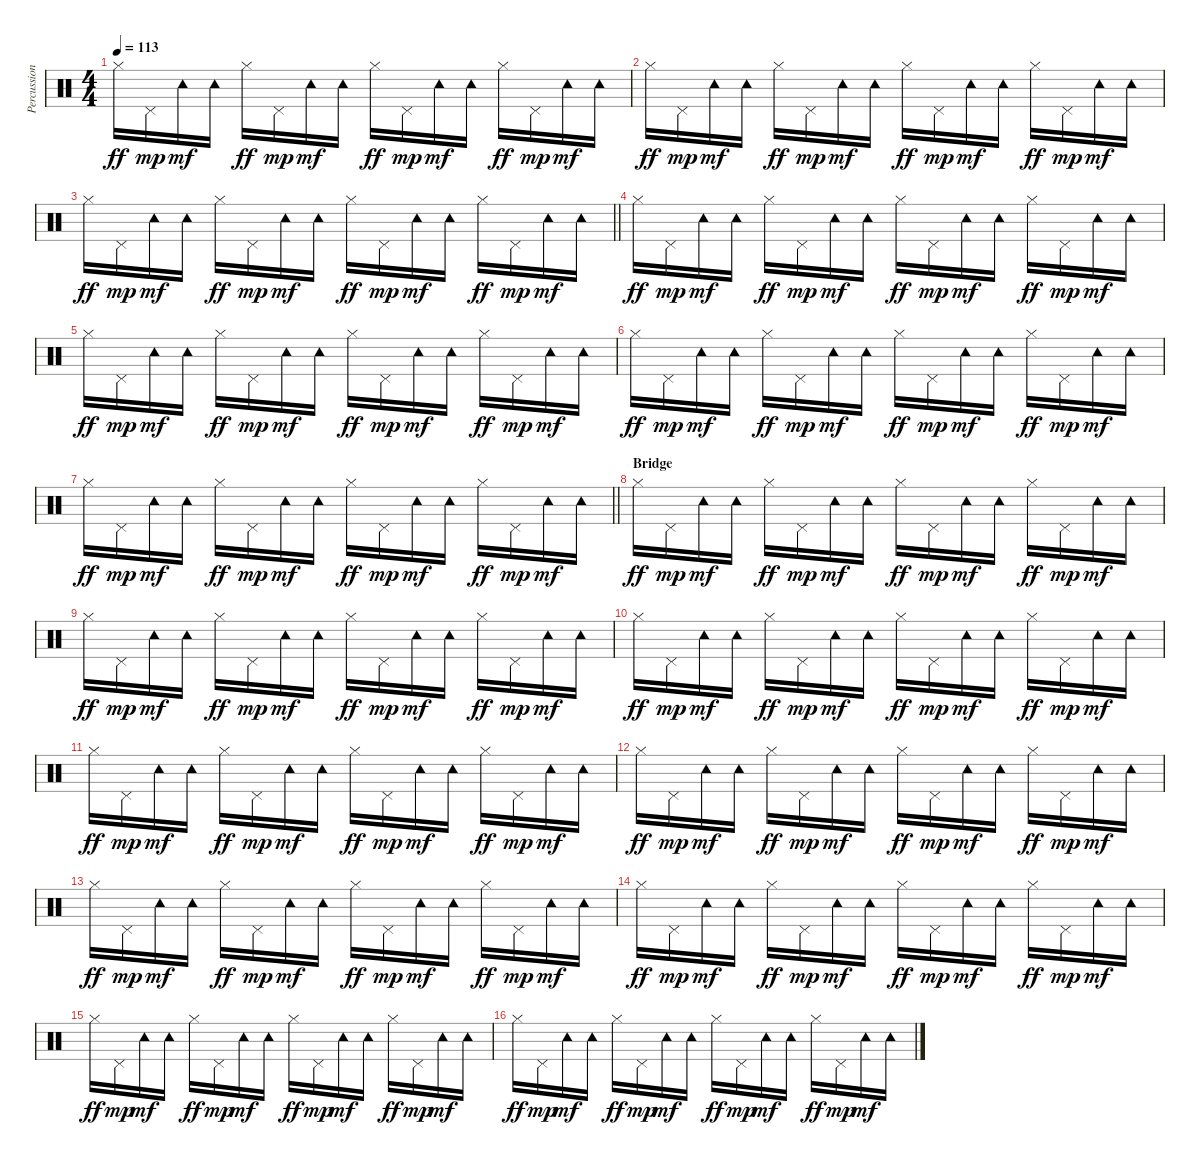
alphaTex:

\track ("Percussion" "Percussion") {instrument percussion}
\staff {score}
\articulation defaults
\ts (4 4)
\tempo 113
\clef neutral
\ks c "Hi-Hat (closed)".16{dy ff} "Pedal Hi-Hat (hit)".16{dy mp} "Tambourine (hit)".16{dy mf} "Tambourine (hit)".16 "Hi-Hat (closed)".16{dy ff} "Pedal Hi-Hat (hit)".16{dy mp} "Tambourine (hit)".16{dy mf} "Tambourine (hit)".16 "Hi-Hat (closed)".16{dy ff} "Pedal Hi-Hat (hit)".16{dy mp} "Tambourine (hit)".16{dy mf} "Tambourine (hit)".16 "Hi-Hat (closed)".16{dy ff} "Pedal Hi-Hat (hit)".16{dy mp} "Tambourine (hit)".16{dy mf} "Tambourine (hit)".16
|
"Hi-Hat (closed)".16{dy ff} "Pedal Hi-Hat (hit)".16{dy mp} "Tambourine (hit)".16{dy mf} "Tambourine (hit)".16 "Hi-Hat (closed)".16{dy ff} "Pedal Hi-Hat (hit)".16{dy mp} "Tambourine (hit)".16{dy mf} "Tambourine (hit)".16 "Hi-Hat (closed)".16{dy ff} "Pedal Hi-Hat (hit)".16{dy mp} "Tambourine (hit)".16{dy mf} "Tambourine (hit)".16 "Hi-Hat (closed)".16{dy ff} "Pedal Hi-Hat (hit)".16{dy mp} "Tambourine (hit)".16{dy mf} "Tambourine (hit)".16 |
\barLineRight lightlight "Hi-Hat (closed)".16{dy ff} "Pedal Hi-Hat (hit)".16{dy mp} "Tambourine (hit)".16{dy mf} "Tambourine (hit)".16 "Hi-Hat (closed)".16{dy ff} "Pedal Hi-Hat (hit)".16{dy mp} "Tambourine (hit)".16{dy mf} "Tambourine (hit)".16 "Hi-Hat (closed)".16{dy ff} "Pedal Hi-Hat (hit)".16{dy mp} "Tambourine (hit)".16{dy mf} "Tambourine (hit)".16 "Hi-Hat (closed)".16{dy ff} "Pedal Hi-Hat (hit)".16{dy mp} "Tambourine (hit)".16{dy mf} "Tambourine (hit)".16
|
"Hi-Hat (closed)".16{dy ff} "Pedal Hi-Hat (hit)".16{dy mp} "Tambourine (hit)".16{dy mf} "Tambourine (hit)".16 "Hi-Hat (closed)".16{dy ff} "Pedal Hi-Hat (hit)".16{dy mp} "Tambourine (hit)".16{dy mf} "Tambourine (hit)".16 "Hi-Hat (closed)".16{dy ff} "Pedal Hi-Hat (hit)".16{dy mp} "Tambourine (hit)".16{dy mf} "Tambourine (hit)".16 "Hi-Hat (closed)".16{dy ff} "Pedal Hi-Hat (hit)".16{dy mp} "Tambourine (hit)".16{dy mf} "Tambourine (hit)".16 |
"Hi-Hat (closed)".16{dy ff} "Pedal Hi-Hat (hit)".16{dy mp} "Tambourine (hit)".16{dy mf} "Tambourine (hit)".16 "Hi-Hat (closed)".16{dy ff} "Pedal Hi-Hat (hit)".16{dy mp} "Tambourine (hit)".16{dy mf} "Tambourine (hit)".16 "Hi-Hat (closed)".16{dy ff} "Pedal Hi-Hat (hit)".16{dy mp} "Tambourine (hit)".16{dy mf} "Tambourine (hit)".16 "Hi-Hat (closed)".16{dy ff} "Pedal Hi-Hat (hit)".16{dy mp} "Tambourine (hit)".16{dy mf} "Tambourine (hit)".16 |
"Hi-Hat (closed)".16{dy ff} "Pedal Hi-Hat (hit)".16{dy mp} "Tambourine (hit)".16{dy mf} "Tambourine (hit)".16 "Hi-Hat (closed)".16{dy ff} "Pedal Hi-Hat (hit)".16{dy mp} "Tambourine (hit)".16{dy mf} "Tambourine (hit)".16 "Hi-Hat (closed)".16{dy ff} "Pedal Hi-Hat (hit)".16{dy mp} "Tambourine (hit)".16{dy mf} "Tambourine (hit)".16 "Hi-Hat (closed)".16{dy ff} "Pedal Hi-Hat (hit)".16{dy mp} "Tambourine (hit)".16{dy mf} "Tambourine (hit)".16 |
\barLineRight lightlight "Hi-Hat (closed)".16{dy ff} "Pedal Hi-Hat (hit)".16{dy mp} "Tambourine (hit)".16{dy mf} "Tambourine (hit)".16 "Hi-Hat (closed)".16{dy ff} "Pedal Hi-Hat (hit)".16{dy mp} "Tambourine (hit)".16{dy mf} "Tambourine (hit)".16 "Hi-Hat (closed)".16{dy ff} "Pedal Hi-Hat (hit)".16{dy mp} "Tambourine (hit)".16{dy mf} "Tambourine (hit)".16 "Hi-Hat (closed)".16{dy ff} "Pedal Hi-Hat (hit)".16{dy mp} "Tambourine (hit)".16{dy mf} "Tambourine (hit)".16
|
\section ("" "Bridge")
"Hi-Hat (closed)".16{dy ff} "Pedal Hi-Hat (hit)".16{dy mp} "Tambourine (hit)".16{dy mf} "Tambourine (hit)".16 "Hi-Hat (closed)".16{dy ff} "Pedal Hi-Hat (hit)".16{dy mp} "Tambourine (hit)".16{dy mf} "Tambourine (hit)".16 "Hi-Hat (closed)".16{dy ff} "Pedal Hi-Hat (hit)".16{dy mp} "Tambourine (hit)".16{dy mf} "Tambourine (hit)".16 "Hi-Hat (closed)".16{dy ff} "Pedal Hi-Hat (hit)".16{dy mp} "Tambourine (hit)".16{dy mf} "Tambourine (hit)".16 |
"Hi-Hat (closed)".16{dy ff} "Pedal Hi-Hat (hit)".16{dy mp} "Tambourine (hit)".16{dy mf} "Tambourine (hit)".16 "Hi-Hat (closed)".16{dy ff} "Pedal Hi-Hat (hit)".16{dy mp} "Tambourine (hit)".16{dy mf} "Tambourine (hit)".16 "Hi-Hat (closed)".16{dy ff} "Pedal Hi-Hat (hit)".16{dy mp} "Tambourine (hit)".16{dy mf} "Tambourine (hit)".16 "Hi-Hat (closed)".16{dy ff} "Pedal Hi-Hat (hit)".16{dy mp} "Tambourine (hit)".16{dy mf} "Tambourine (hit)".16 |
"Hi-Hat (closed)".16{dy ff} "Pedal Hi-Hat (hit)".16{dy mp} "Tambourine (hit)".16{dy mf} "Tambourine (hit)".16 "Hi-Hat (closed)".16{dy ff} "Pedal Hi-Hat (hit)".16{dy mp} "Tambourine (hit)".16{dy mf} "Tambourine (hit)".16 "Hi-Hat (closed)".16{dy ff} "Pedal Hi-Hat (hit)".16{dy mp} "Tambourine (hit)".16{dy mf} "Tambourine (hit)".16 "Hi-Hat (closed)".16{dy ff} "Pedal Hi-Hat (hit)".16{dy mp} "Tambourine (hit)".16{dy mf} "Tambourine (hit)".16 |
"Hi-Hat (closed)".16{dy ff} "Pedal Hi-Hat (hit)".16{dy mp} "Tambourine (hit)".16{dy mf} "Tambourine (hit)".16 "Hi-Hat (closed)".16{dy ff} "Pedal Hi-Hat (hit)".16{dy mp} "Tambourine (hit)".16{dy mf} "Tambourine (hit)".16 "Hi-Hat (closed)".16{dy ff} "Pedal Hi-Hat (hit)".16{dy mp} "Tambourine (hit)".16{dy mf} "Tambourine (hit)".16 "Hi-Hat (closed)".16{dy ff} "Pedal Hi-Hat (hit)".16{dy mp} "Tambourine (hit)".16{dy mf} "Tambourine (hit)".16 |
"Hi-Hat (closed)".16{dy ff} "Pedal Hi-Hat (hit)".16{dy mp} "Tambourine (hit)".16{dy mf} "Tambourine (hit)".16 "Hi-Hat (closed)".16{dy ff} "Pedal Hi-Hat (hit)".16{dy mp} "Tambourine (hit)".16{dy mf} "Tambourine (hit)".16 "Hi-Hat (closed)".16{dy ff} "Pedal Hi-Hat (hit)".16{dy mp} "Tambourine (hit)".16{dy mf} "Tambourine (hit)".16 "Hi-Hat (closed)".16{dy ff} "Pedal Hi-Hat (hit)".16{dy mp} "Tambourine (hit)".16{dy mf} "Tambourine (hit)".16 |
"Hi-Hat (closed)".16{dy ff} "Pedal Hi-Hat (hit)".16{dy mp} "Tambourine (hit)".16{dy mf} "Tambourine (hit)".16 "Hi-Hat (closed)".16{dy ff} "Pedal Hi-Hat (hit)".16{dy mp} "Tambourine (hit)".16{dy mf} "Tambourine (hit)".16 "Hi-Hat (closed)".16{dy ff} "Pedal Hi-Hat (hit)".16{dy mp} "Tambourine (hit)".16{dy mf} "Tambourine (hit)".16 "Hi-Hat (closed)".16{dy ff} "Pedal Hi-Hat (hit)".16{dy mp} "Tambourine (hit)".16{dy mf} "Tambourine (hit)".16 |
"Hi-Hat (closed)".16{dy ff} "Pedal Hi-Hat (hit)".16{dy mp} "Tambourine (hit)".16{dy mf} "Tambourine (hit)".16 "Hi-Hat (closed)".16{dy ff} "Pedal Hi-Hat (hit)".16{dy mp} "Tambourine (hit)".16{dy mf} "Tambourine (hit)".16 "Hi-Hat (closed)".16{dy ff} "Pedal Hi-Hat (hit)".16{dy mp} "Tambourine (hit)".16{dy mf} "Tambourine (hit)".16 "Hi-Hat (closed)".16{dy ff} "Pedal Hi-Hat (hit)".16{dy mp} "Tambourine (hit)".16{dy mf} "Tambourine (hit)".16 |
"Hi-Hat (closed)".16{dy ff} "Pedal Hi-Hat (hit)".16{dy mp} "Tambourine (hit)".16{dy mf} "Tambourine (hit)".16 "Hi-Hat (closed)".16{dy ff} "Pedal Hi-Hat (hit)".16{dy mp} "Tambourine (hit)".16{dy mf} "Tambourine (hit)".16 "Hi-Hat (closed)".16{dy ff} "Pedal Hi-Hat (hit)".16{dy mp} "Tambourine (hit)".16{dy mf} "Tambourine (hit)".16 "Hi-Hat (closed)".16{dy ff} "Pedal Hi-Hat (hit)".16{dy mp} "Tambourine (hit)".16{dy mf} "Tambourine (hit)".16 |
"Hi-Hat (closed)".16{dy ff} "Pedal Hi-Hat (hit)".16{dy mp} "Tambourine (hit)".16{dy mf} "Tambourine (hit)".16 "Hi-Hat (closed)".16{dy ff} "Pedal Hi-Hat (hit)".16{dy mp} "Tambourine (hit)".16{dy mf} "Tambourine (hit)".16 "Hi-Hat (closed)".16{dy ff} "Pedal Hi-Hat (hit)".16{dy mp} "Tambourine (hit)".16{dy mf} "Tambourine (hit)".16 "Hi-Hat (closed)".16{dy ff} "Pedal Hi-Hat (hit)".16{dy mp} "Tambourine (hit)".16{dy mf} "Tambourine (hit)".16
